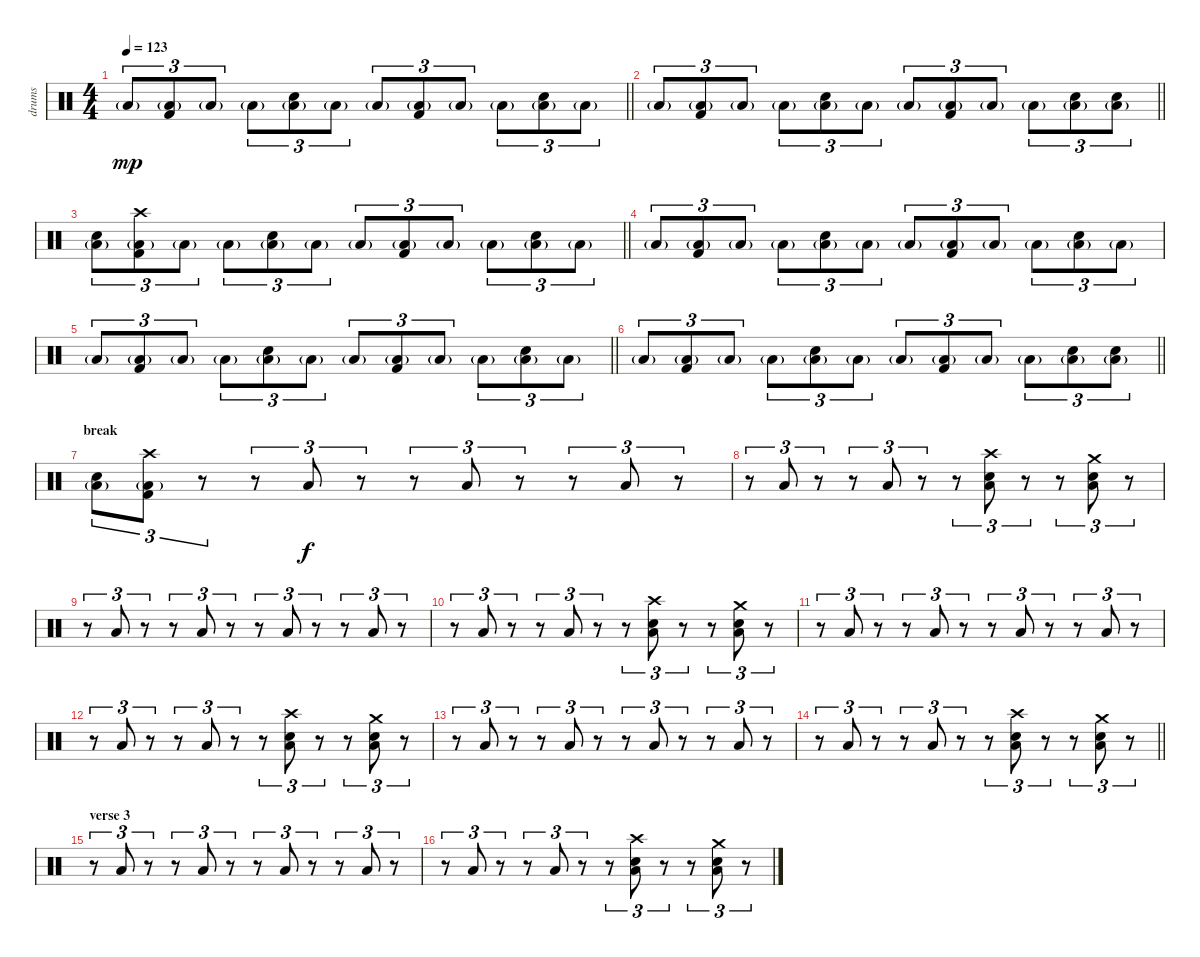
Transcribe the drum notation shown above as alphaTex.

\track ("drums" "drums") {instrument percussion}
\staff {score}
\articulation defaults
\ts (4 4)
\tempo 123
\clef neutral
\barLineRight lightlight
\ks c "Low Floor Tom (hit)"{g}.8{tu (3 2) dy mp}
("Low Floor Tom (hit)"{g} "Kick (hit) 2").8{tu (3 2)} "Low Floor Tom (hit)"{g}.8{tu (3 2)} "Low Floor Tom (hit)"{g}.8{tu (3 2)} ("Low Floor Tom (hit)"{g} "Electric Snare (hit)").8{tu (3 2)} "Low Floor Tom (hit)"{g}.8{tu (3 2)} "Low Floor Tom (hit)"{g}.8{tu (3 2)} ("Low Floor Tom (hit)"{g} "Kick (hit) 2").8{tu (3 2)} "Low Floor Tom (hit)"{g}.8{tu (3 2)} "Low Floor Tom (hit)"{g}.8{tu (3 2)} ("Low Floor Tom (hit)"{g} "Electric Snare (hit)").8{tu (3 2)} "Low Floor Tom (hit)"{g}.8{tu (3 2)} |
\barLineRight lightlight "Low Floor Tom (hit)"{g}.8{tu (3 2)}
("Low Floor Tom (hit)"{g} "Kick (hit) 2").8{tu (3 2)} "Low Floor Tom (hit)"{g}.8{tu (3 2)} "Low Floor Tom (hit)"{g}.8{tu (3 2)} ("Low Floor Tom (hit)"{g} "Electric Snare (hit)").8{tu (3 2)} "Low Floor Tom (hit)"{g}.8{tu (3 2)} "Low Floor Tom (hit)"{g}.8{tu (3 2)} ("Low Floor Tom (hit)"{g} "Kick (hit) 2").8{tu (3 2)} "Low Floor Tom (hit)"{g}.8{tu (3 2)} "Low Floor Tom (hit)"{g}.8{tu (3 2)} ("Low Floor Tom (hit)"{g} "Electric Snare (hit)").8{tu (3 2)} ("Low Floor Tom (hit)"{g} "Electric Snare (hit)").8{tu (3 2)} |
\barLineRight lightlight
("Low Floor Tom (hit)"{g} "Electric Snare (hit)").8{tu (3 2)} ("Low Floor Tom (hit)"{g} "Kick (hit) 2" "Crash high (hit)").8{tu (3 2)} "Low Floor Tom (hit)"{g}.8{tu (3 2)} "Low Floor Tom (hit)"{g}.8{tu (3 2)} ("Low Floor Tom (hit)"{g} "Electric Snare (hit)").8{tu (3 2)} "Low Floor Tom (hit)"{g}.8{tu (3 2)} "Low Floor Tom (hit)"{g}.8{tu (3 2)} ("Low Floor Tom (hit)"{g} "Kick (hit) 2").8{tu (3 2)} "Low Floor Tom (hit)"{g}.8{tu (3 2)} "Low Floor Tom (hit)"{g}.8{tu (3 2)} ("Low Floor Tom (hit)"{g} "Electric Snare (hit)").8{tu (3 2)} "Low Floor Tom (hit)"{g}.8{tu (3 2)} |
"Low Floor Tom (hit)"{g}.8{tu (3 2)} ("Low Floor Tom (hit)"{g} "Kick (hit) 2").8{tu (3 2)} "Low Floor Tom (hit)"{g}.8{tu (3 2)} "Low Floor Tom (hit)"{g}.8{tu (3 2)} ("Low Floor Tom (hit)"{g} "Electric Snare (hit)").8{tu (3 2)} "Low Floor Tom (hit)"{g}.8{tu (3 2)} "Low Floor Tom (hit)"{g}.8{tu (3 2)} ("Low Floor Tom (hit)"{g} "Kick (hit) 2").8{tu (3 2)} "Low Floor Tom (hit)"{g}.8{tu (3 2)} "Low Floor Tom (hit)"{g}.8{tu (3 2)} ("Low Floor Tom (hit)"{g} "Electric Snare (hit)").8{tu (3 2)} "Low Floor Tom (hit)"{g}.8{tu (3 2)} |
\barLineRight lightlight "Low Floor Tom (hit)"{g}.8{tu (3 2)}
("Low Floor Tom (hit)"{g} "Kick (hit) 2").8{tu (3 2)} "Low Floor Tom (hit)"{g}.8{tu (3 2)} "Low Floor Tom (hit)"{g}.8{tu (3 2)} ("Low Floor Tom (hit)"{g} "Electric Snare (hit)").8{tu (3 2)} "Low Floor Tom (hit)"{g}.8{tu (3 2)} "Low Floor Tom (hit)"{g}.8{tu (3 2)} ("Low Floor Tom (hit)"{g} "Kick (hit) 2").8{tu (3 2)} "Low Floor Tom (hit)"{g}.8{tu (3 2)} "Low Floor Tom (hit)"{g}.8{tu (3 2)} ("Low Floor Tom (hit)"{g} "Electric Snare (hit)").8{tu (3 2)} "Low Floor Tom (hit)"{g}.8{tu (3 2)} |
\barLineRight lightlight "Low Floor Tom (hit)"{g}.8{tu (3 2)}
("Low Floor Tom (hit)"{g} "Kick (hit) 2").8{tu (3 2)} "Low Floor Tom (hit)"{g}.8{tu (3 2)} "Low Floor Tom (hit)"{g}.8{tu (3 2)} ("Low Floor Tom (hit)"{g} "Electric Snare (hit)").8{tu (3 2)} "Low Floor Tom (hit)"{g}.8{tu (3 2)} "Low Floor Tom (hit)"{g}.8{tu (3 2)} ("Low Floor Tom (hit)"{g} "Kick (hit) 2").8{tu (3 2)} "Low Floor Tom (hit)"{g}.8{tu (3 2)} "Low Floor Tom (hit)"{g}.8{tu (3 2)} ("Low Floor Tom (hit)"{g} "Electric Snare (hit)").8{tu (3 2)} ("Low Floor Tom (hit)"{g} "Electric Snare (hit)").8{tu (3 2)} |
\section ("" "break")
("Low Floor Tom (hit)"{g} "Electric Snare (hit)").8{tu (3 2)} ("Low Floor Tom (hit)"{g} "Kick (hit) 2" "Crash high (hit)").8{tu (3 2)} r.8{tu (3 2)} r.8{tu (3 2)} "Low Floor Tom (hit)".8{tu (3 2) dy f} r.8{tu (3 2)} r.8{tu (3 2)} "Low Floor Tom (hit)".8{tu (3 2)} r.8{tu (3 2)} r.8{tu (3 2)} "Low Floor Tom (hit)".8{tu (3 2)} r.8{tu (3 2)} |
r.8{tu (3 2)} "Low Floor Tom (hit)".8{tu (3 2)} r.8{tu (3 2)} r.8{tu (3 2)} "Low Floor Tom (hit)".8{tu (3 2)} r.8{tu (3 2)} r.8{tu (3 2)} ("Low Floor Tom (hit)" "Electric Snare (hit)" "Crash high (hit)").8{tu (3 2)} r.8{tu (3 2)} r.8{tu (3 2)} ("Low Floor Tom (hit)" "Electric Snare (hit)" "Crash medium (hit)").8{tu (3 2)} r.8{tu (3 2)} |
r.8{tu (3 2)} "Low Floor Tom (hit)".8{tu (3 2)} r.8{tu (3 2)} r.8{tu (3 2)} "Low Floor Tom (hit)".8{tu (3 2)} r.8{tu (3 2)} r.8{tu (3 2)} "Low Floor Tom (hit)".8{tu (3 2)} r.8{tu (3 2)} r.8{tu (3 2)} "Low Floor Tom (hit)".8{tu (3 2)} r.8{tu (3 2)} |
r.8{tu (3 2)} "Low Floor Tom (hit)".8{tu (3 2)} r.8{tu (3 2)} r.8{tu (3 2)} "Low Floor Tom (hit)".8{tu (3 2)} r.8{tu (3 2)} r.8{tu (3 2)} ("Low Floor Tom (hit)" "Electric Snare (hit)" "Crash high (hit)").8{tu (3 2)} r.8{tu (3 2)} r.8{tu (3 2)} ("Low Floor Tom (hit)" "Electric Snare (hit)" "Crash medium (hit)").8{tu (3 2)} r.8{tu (3 2)} |
r.8{tu (3 2)} "Low Floor Tom (hit)".8{tu (3 2)} r.8{tu (3 2)} r.8{tu (3 2)} "Low Floor Tom (hit)".8{tu (3 2)} r.8{tu (3 2)} r.8{tu (3 2)} "Low Floor Tom (hit)".8{tu (3 2)} r.8{tu (3 2)} r.8{tu (3 2)} "Low Floor Tom (hit)".8{tu (3 2)} r.8{tu (3 2)} |
r.8{tu (3 2)} "Low Floor Tom (hit)".8{tu (3 2)} r.8{tu (3 2)} r.8{tu (3 2)} "Low Floor Tom (hit)".8{tu (3 2)} r.8{tu (3 2)} r.8{tu (3 2)} ("Low Floor Tom (hit)" "Electric Snare (hit)" "Crash high (hit)").8{tu (3 2)} r.8{tu (3 2)} r.8{tu (3 2)} ("Low Floor Tom (hit)" "Electric Snare (hit)" "Crash medium (hit)").8{tu (3 2)} r.8{tu (3 2)} |
r.8{tu (3 2)} "Low Floor Tom (hit)".8{tu (3 2)} r.8{tu (3 2)} r.8{tu (3 2)} "Low Floor Tom (hit)".8{tu (3 2)} r.8{tu (3 2)} r.8{tu (3 2)} "Low Floor Tom (hit)".8{tu (3 2)} r.8{tu (3 2)} r.8{tu (3 2)} "Low Floor Tom (hit)".8{tu (3 2)} r.8{tu (3 2)} |
\barLineRight lightlight
r.8{tu (3 2)} "Low Floor Tom (hit)".8{tu (3 2)} r.8{tu (3 2)} r.8{tu (3 2)} "Low Floor Tom (hit)".8{tu (3 2)} r.8{tu (3 2)} r.8{tu (3 2)} ("Low Floor Tom (hit)" "Electric Snare (hit)" "Crash high (hit)").8{tu (3 2)} r.8{tu (3 2)} r.8{tu (3 2)} ("Low Floor Tom (hit)" "Electric Snare (hit)" "Crash medium (hit)").8{tu (3 2)} r.8{tu (3 2)} |
\section ("" "verse 3")
r.8{tu (3 2)} "Low Floor Tom (hit)".8{tu (3 2)} r.8{tu (3 2)} r.8{tu (3 2)} "Low Floor Tom (hit)".8{tu (3 2)} r.8{tu (3 2)} r.8{tu (3 2)} "Low Floor Tom (hit)".8{tu (3 2)} r.8{tu (3 2)} r.8{tu (3 2)} "Low Floor Tom (hit)".8{tu (3 2)} r.8{tu (3 2)} |
r.8{tu (3 2)} "Low Floor Tom (hit)".8{tu (3 2)} r.8{tu (3 2)} r.8{tu (3 2)} "Low Floor Tom (hit)".8{tu (3 2)} r.8{tu (3 2)} r.8{tu (3 2)} ("Low Floor Tom (hit)" "Electric Snare (hit)" "Crash high (hit)").8{tu (3 2)} r.8{tu (3 2)} r.8{tu (3 2)} ("Low Floor Tom (hit)" "Electric Snare (hit)" "Crash medium (hit)").8{tu (3 2)} r.8{tu (3 2)}
